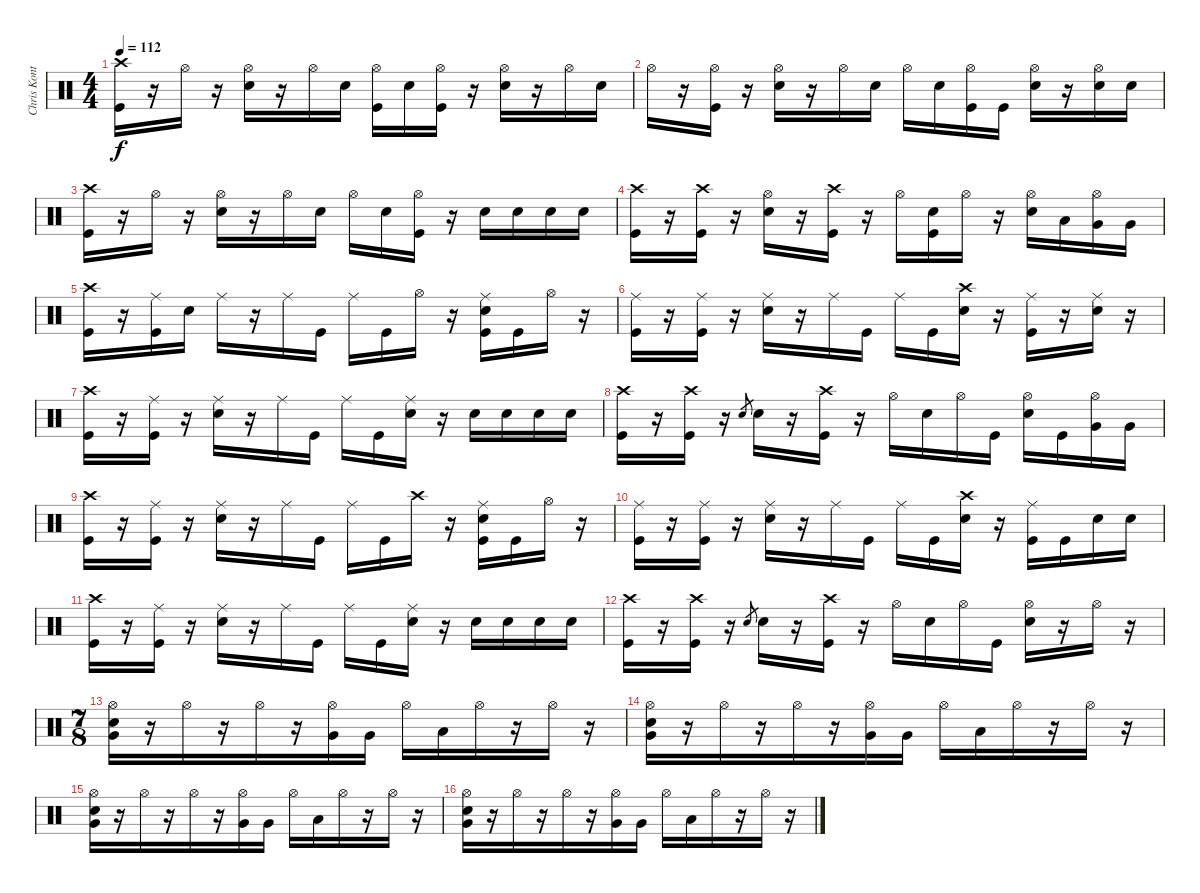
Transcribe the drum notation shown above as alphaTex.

\track ("Chris Kontos - Drums" "Chris Kont") {instrument percussion}
\staff {score}
\articulation defaults
\ts (4 4)
\tempo 112
\clef neutral
\ks c
("Crash high (hit)" "Kick (hit)").16{dy f} r.16 "Hi-Hat (open)".16 r.16 ("Hi-Hat (open)" "Snare (hit) 2").16 r.16 "Hi-Hat (open)".16 "Snare (hit) 2".16 ("Hi-Hat (open)" "Kick (hit)").16 "Snare (hit) 2".16 ("Hi-Hat (open)" "Kick (hit)").16 r.16 ("Hi-Hat (open)" "Snare (hit) 2").16 r.16 "Hi-Hat (open)".16 "Snare (hit) 2".16 |
"Hi-Hat (open)".16 r.16 ("Hi-Hat (open)" "Kick (hit)").16 r.16 ("Hi-Hat (open)" "Snare (hit) 2").16 r.16 "Hi-Hat (open)".16 "Snare (hit) 2".16 "Hi-Hat (open)".16 "Snare (hit) 2".16 ("Hi-Hat (open)" "Kick (hit)").16 "Kick (hit)".16 ("Hi-Hat (open)" "Snare (hit) 2").16 r.16 ("Hi-Hat (open)" "Snare (hit) 2").16 "Snare (hit) 2".16 |
("Crash high (hit)" "Kick (hit)").16 r.16 "Hi-Hat (open)".16 r.16 ("Hi-Hat (open)" "Snare (hit) 2").16 r.16 "Hi-Hat (open)".16 "Snare (hit) 2".16 "Hi-Hat (open)".16 "Snare (hit) 2".16 ("Hi-Hat (open)" "Kick (hit)").16 r.16 "Snare (hit) 2".16 "Snare (hit) 2".16 "Snare (hit) 2".16 "Snare (hit) 2".16 |
("Crash high (hit)" "Kick (hit)").16 r.16 ("Crash high (hit)" "Kick (hit)").16 r.16 ("Hi-Hat (open)" "Snare (hit) 2").16 r.16 ("Crash high (hit)" "Kick (hit)").16 r.16 "Hi-Hat (open)".16 ("Snare (hit) 2" "Kick (hit)").16 "Hi-Hat (open)".16 r.16 ("Hi-Hat (open)" "Snare (hit) 2").16 "Low Tom (hit)".16 ("Hi-Hat (open)" "Very Low Tom (hit)").16 "Very Low Tom (hit)".16 |
("Crash high (hit)" "Kick (hit)").16 r.16 ("Ride (middle)" "Kick (hit)").16 "Snare (hit) 2".16 "Ride (middle)".16 r.16 "Ride (middle)".16 "Kick (hit)".16 "Ride (middle)".16 "Kick (hit)".16 "Hi-Hat (open)".16 r.16 ("Ride (middle)" "Snare (hit) 2" "Kick (hit)").16 "Kick (hit)".16 "Hi-Hat (open)".16 r.16 |
("Ride (middle)" "Kick (hit)").16 r.16 ("Ride (middle)" "Kick (hit)").16 r.16 ("Ride (middle)" "Snare (hit) 2").16 r.16 "Ride (middle)".16 "Kick (hit)".16 "Ride (middle)".16 "Kick (hit)".16 ("Crash high (hit)" "Snare (hit) 2").16 r.16 ("Ride (middle)" "Kick (hit)").16 r.16 ("Ride (middle)" "Snare (hit) 2").16 r.16 |
("Crash high (hit)" "Kick (hit)").16 r.16 ("Ride (middle)" "Kick (hit)").16 r.16 ("Ride (middle)" "Snare (hit) 2").16 r.16 "Ride (middle)".16 "Kick (hit)".16 "Ride (middle)".16 "Kick (hit)".16 ("Ride (middle)" "Snare (hit) 2").16 r.16 "Snare (hit) 2".16 "Snare (hit) 2".16 "Snare (hit) 2".16 "Snare (hit) 2".16 |
("Crash high (hit)" "Kick (hit)").16 r.16 ("Crash high (hit)" "Kick (hit)").16 r.16 "Snare (hit) 2".8{gr} "Snare (hit) 2".16 r.16 ("Crash high (hit)" "Kick (hit)").16 r.16 "Hi-Hat (open)".16 "Snare (hit) 2".16 "Hi-Hat (open)".16 "Kick (hit)".16 ("Hi-Hat (open)" "Snare (hit) 2").16 "Kick (hit)".16 ("Hi-Hat (open)" "Very Low Tom (hit)").16 "Very Low Tom (hit)".16 |
("Crash high (hit)" "Kick (hit)").16 r.16 ("Ride (middle)" "Kick (hit)").16 r.16 ("Ride (middle)" "Snare (hit) 2").16 r.16 "Ride (middle)".16 "Kick (hit)".16 "Ride (middle)".16 "Kick (hit)".16 "Crash high (hit)".16 r.16 ("Ride (middle)" "Snare (hit) 2" "Kick (hit)").16 "Kick (hit)".16 "Hi-Hat (open)".16 r.16 |
("Ride (middle)" "Kick (hit)").16 r.16 ("Ride (middle)" "Kick (hit)").16 r.16 ("Ride (middle)" "Snare (hit) 2").16 r.16 "Ride (middle)".16 "Kick (hit)".16 "Ride (middle)".16 "Kick (hit)".16 ("Crash high (hit)" "Snare (hit) 2").16 r.16 ("Ride (middle)" "Kick (hit)").16 "Kick (hit)".16 "Snare (hit) 2".16 "Snare (hit) 2".16 |
("Crash high (hit)" "Kick (hit)").16 r.16 ("Ride (middle)" "Kick (hit)").16 r.16 ("Ride (middle)" "Snare (hit) 2").16 r.16 "Ride (middle)".16 "Kick (hit)".16 "Ride (middle)".16 "Kick (hit)".16 ("Ride (middle)" "Snare (hit) 2").16 r.16 "Snare (hit) 2".16 "Snare (hit) 2".16 "Snare (hit) 2".16 "Snare (hit) 2".16 |
("Crash high (hit)" "Kick (hit)").16 r.16 ("Crash high (hit)" "Kick (hit)").16 r.16 "Snare (hit) 2".8{gr} "Snare (hit) 2".16 r.16 ("Crash high (hit)" "Kick (hit)").16 r.16 "Hi-Hat (open)".16 "Snare (hit) 2".16 "Hi-Hat (open)".16 "Kick (hit)".16 ("Hi-Hat (open)" "Snare (hit) 2").16 r.16 "Hi-Hat (open)".16 r.16 |
\ts (7 8)
("Hi-Hat (open)" "Very Low Tom (hit)" "Snare (hit) 2").16 r.16 "Hi-Hat (open)".16 r.16 "Hi-Hat (open)".16 r.16 ("Hi-Hat (open)" "Very Low Tom (hit)").16 "Very Low Tom (hit)".16 "Hi-Hat (open)".16 "Low Tom (hit)".16 "Hi-Hat (open)".16 r.16 "Hi-Hat (open)".16 r.16 |
("Hi-Hat (open)" "Very Low Tom (hit)" "Snare (hit) 2").16 r.16 "Hi-Hat (open)".16 r.16 "Hi-Hat (open)".16 r.16 ("Hi-Hat (open)" "Very Low Tom (hit)").16 "Very Low Tom (hit)".16 "Hi-Hat (open)".16 "Low Tom (hit)".16 "Hi-Hat (open)".16 r.16 "Hi-Hat (open)".16 r.16 |
("Hi-Hat (open)" "Very Low Tom (hit)" "Snare (hit) 2").16 r.16 "Hi-Hat (open)".16 r.16 "Hi-Hat (open)".16 r.16 ("Hi-Hat (open)" "Very Low Tom (hit)").16 "Very Low Tom (hit)".16 "Hi-Hat (open)".16 "Low Tom (hit)".16 "Hi-Hat (open)".16 r.16 "Hi-Hat (open)".16 r.16 |
("Hi-Hat (open)" "Very Low Tom (hit)" "Snare (hit) 2").16 r.16 "Hi-Hat (open)".16 r.16 "Hi-Hat (open)".16 r.16 ("Hi-Hat (open)" "Very Low Tom (hit)").16 "Very Low Tom (hit)".16 "Hi-Hat (open)".16 "Low Tom (hit)".16 "Hi-Hat (open)".16 r.16 "Hi-Hat (open)".16 r.16
